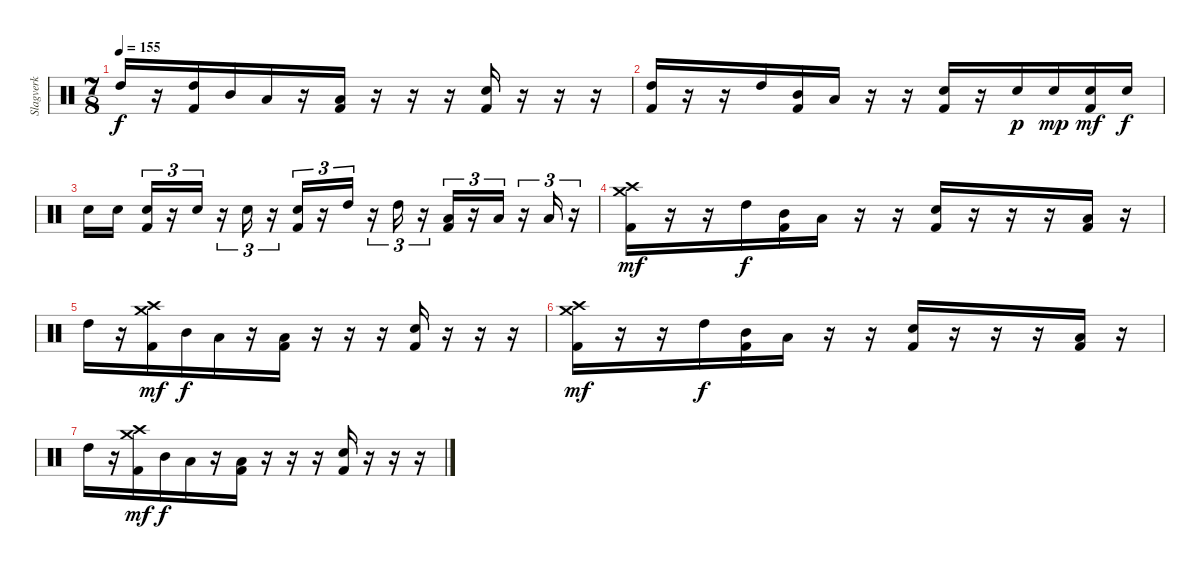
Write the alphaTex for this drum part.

\track ("Slagverk" "Slagverk") {instrument percussion}
\staff {score}
\articulation defaults
\ts (7 8)
\tempo 155
\clef neutral
\ks c "High Tom (hit)".16{dy f}
r.16 ("Kick (hit) 2" "High Tom (hit)").16 "Mid Tom (hit)".16 "Low Tom (hit)".16 r.16 ("Kick (hit) 2" "Low Tom (hit)").16 r.16 r.16 r.16 ("Kick (hit) 2" "Electric Snare (hit)").16 r.16 r.16 r.16 |
("Kick (hit) 2" "High Tom (hit)").16 r.16 r.16 "High Tom (hit)".16 ("Kick (hit) 2" "Mid Tom (hit)").16 "Low Tom (hit)".16 r.16 r.16 ("Kick (hit) 2" "Electric Snare (hit)").16 r.16 "Electric Snare (hit)".16{dy p} "Electric Snare (hit)".16{dy mp} ("Kick (hit) 2" "Electric Snare (hit)").16{dy mf} "Electric Snare (hit)".16{dy f} |
"Electric Snare (hit)".16 "Electric Snare (hit)".16 ("Kick (hit) 2" "Electric Snare (hit)").16{tu (3 2)} r.16{tu (3 2)} "Electric Snare (hit)".16{tu (3 2)} r.16{tu (3 2)} "Electric Snare (hit)".16{tu (3 2)} r.16{tu (3 2)} ("Kick (hit) 2" "Electric Snare (hit)").16{tu (3 2)} r.16{tu (3 2)} "High Tom (hit)".16{tu (3 2)} r.16{tu (3 2)} "High Tom (hit)".16{tu (3 2)} r.16{tu (3 2)} ("Kick (hit) 2" "Low Tom (hit)").16{tu (3 2)} r.16{tu (3 2)} "Low Tom (hit)".16{tu (3 2)} r.16{tu (3 2)} "Low Tom (hit)".16{tu (3 2)} r.16{tu (3 2)} |
("Kick (hit) 2" "Crash medium (hit)" "Crash high (hit)").16{dy mf} r.16 r.16 "High Tom (hit)".16{dy f} ("Kick (hit) 2" "Mid Tom (hit)").16 "Low Tom (hit)".16 r.16 r.16 ("Kick (hit) 2" "Electric Snare (hit)").16 r.16 r.16 r.16 ("Kick (hit) 2" "Low Tom (hit)").16 r.16 |
"High Tom (hit)".16 r.16 ("Kick (hit) 2" "Crash medium (hit)" "Crash high (hit)").16{dy mf} "Mid Tom (hit)".16{dy f} "Low Tom (hit)".16 r.16 ("Kick (hit) 2" "Low Tom (hit)").16 r.16 r.16 r.16 ("Kick (hit) 2" "Electric Snare (hit)").16 r.16 r.16 r.16 |
("Kick (hit) 2" "Crash medium (hit)" "Crash high (hit)").16{dy mf} r.16 r.16 "High Tom (hit)".16{dy f} ("Kick (hit) 2" "Mid Tom (hit)").16 "Low Tom (hit)".16 r.16 r.16 ("Kick (hit) 2" "Electric Snare (hit)").16 r.16 r.16 r.16 ("Kick (hit) 2" "Low Tom (hit)").16 r.16 |
"High Tom (hit)".16 r.16 ("Kick (hit) 2" "Crash medium (hit)" "Crash high (hit)").16{dy mf} "Mid Tom (hit)".16{dy f} "Low Tom (hit)".16 r.16 ("Kick (hit) 2" "Low Tom (hit)").16 r.16 r.16 r.16 ("Kick (hit) 2" "Electric Snare (hit)").16 r.16 r.16 r.16
